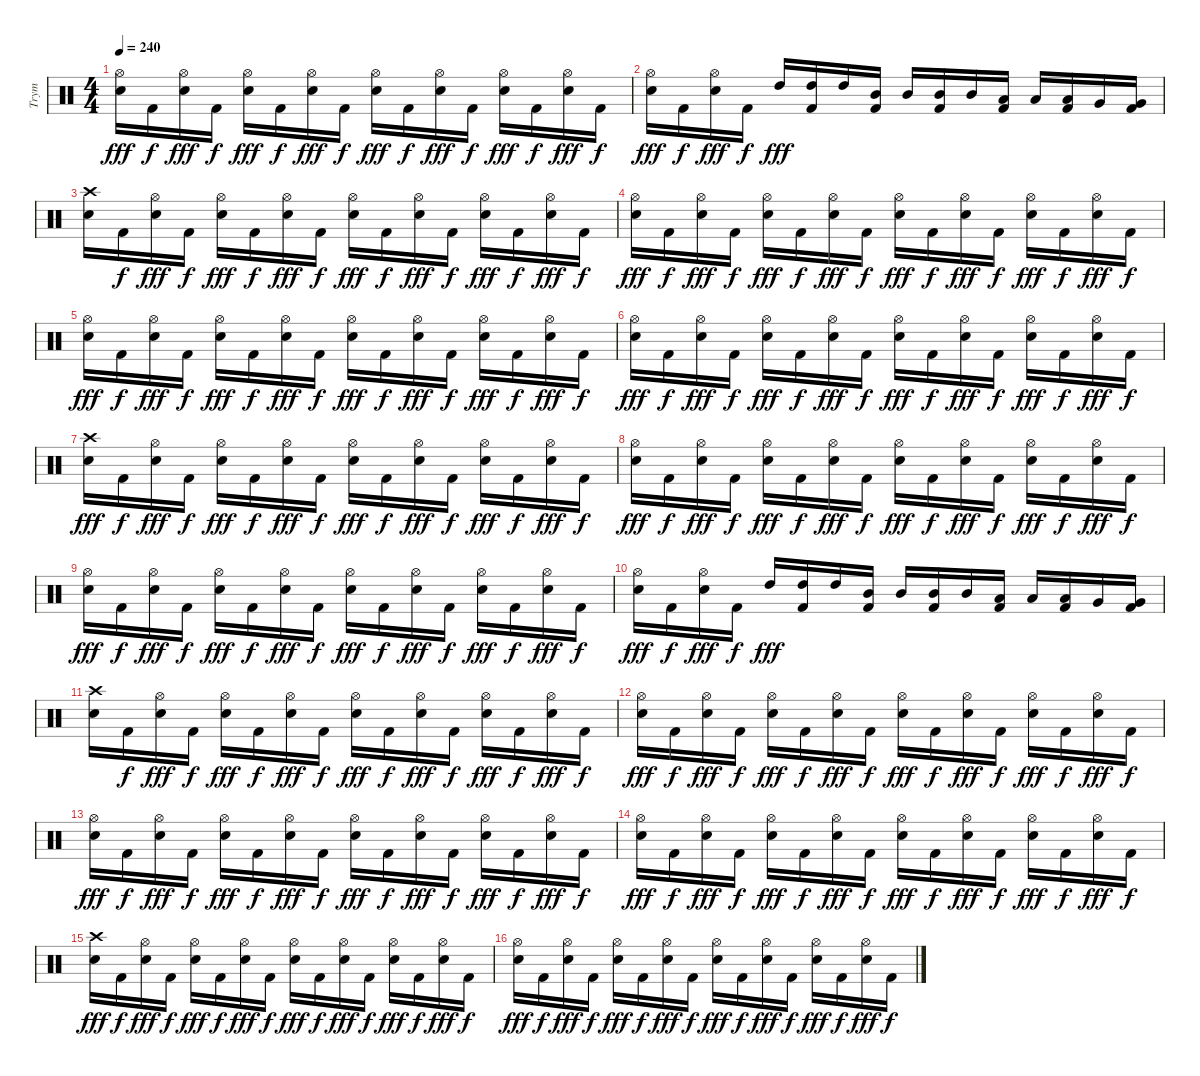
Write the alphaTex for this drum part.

\track ("Trym" "Trym") {instrument percussion}
\staff {score}
\articulation defaults
\ts (4 4)
\tempo 240
\clef neutral
\ks c
("Hi-Hat (open)" "Electric Snare (hit)").16{dy fff} "Kick (hit) 2".16{dy f} ("Hi-Hat (open)" "Electric Snare (hit)").16{dy fff} "Kick (hit) 2".16{dy f} ("Hi-Hat (open)" "Electric Snare (hit)").16{dy fff} "Kick (hit) 2".16{dy f} ("Hi-Hat (open)" "Electric Snare (hit)").16{dy fff} "Kick (hit) 2".16{dy f} ("Hi-Hat (open)" "Electric Snare (hit)").16{dy fff} "Kick (hit) 2".16{dy f} ("Hi-Hat (open)" "Electric Snare (hit)").16{dy fff} "Kick (hit) 2".16{dy f} ("Hi-Hat (open)" "Electric Snare (hit)").16{dy fff} "Kick (hit) 2".16{dy f} ("Hi-Hat (open)" "Electric Snare (hit)").16{dy fff} "Kick (hit) 2".16{dy f} |
("Hi-Hat (open)" "Electric Snare (hit)").16{dy fff} "Kick (hit) 2".16{dy f} ("Hi-Hat (open)" "Electric Snare (hit)").16{dy fff} "Kick (hit) 2".16{dy f} "High Tom (hit)".16{dy fff} ("High Tom (hit)" "Kick (hit) 2").16 "High Tom (hit)".16 ("Mid Tom (hit)" "Kick (hit) 2").16 "Mid Tom (hit)".16 ("Mid Tom (hit)" "Kick (hit) 2").16 "Mid Tom (hit)".16 ("Low Tom (hit)" "Kick (hit) 2").16 "Low Tom (hit)".16 ("Low Tom (hit)" "Kick (hit) 2").16 "Very Low Tom (hit)".16 ("Very Low Tom (hit)" "Kick (hit) 2").16 |
("Crash high (hit)" "Electric Snare (hit)").16 "Kick (hit) 2".16{dy f} ("Hi-Hat (open)" "Electric Snare (hit)").16{dy fff} "Kick (hit) 2".16{dy f} ("Hi-Hat (open)" "Electric Snare (hit)").16{dy fff} "Kick (hit) 2".16{dy f} ("Hi-Hat (open)" "Electric Snare (hit)").16{dy fff} "Kick (hit) 2".16{dy f} ("Hi-Hat (open)" "Electric Snare (hit)").16{dy fff} "Kick (hit) 2".16{dy f} ("Hi-Hat (open)" "Electric Snare (hit)").16{dy fff} "Kick (hit) 2".16{dy f} ("Hi-Hat (open)" "Electric Snare (hit)").16{dy fff} "Kick (hit) 2".16{dy f} ("Hi-Hat (open)" "Electric Snare (hit)").16{dy fff} "Kick (hit) 2".16{dy f} |
("Hi-Hat (open)" "Electric Snare (hit)").16{dy fff} "Kick (hit) 2".16{dy f} ("Hi-Hat (open)" "Electric Snare (hit)").16{dy fff} "Kick (hit) 2".16{dy f} ("Hi-Hat (open)" "Electric Snare (hit)").16{dy fff} "Kick (hit) 2".16{dy f} ("Hi-Hat (open)" "Electric Snare (hit)").16{dy fff} "Kick (hit) 2".16{dy f} ("Hi-Hat (open)" "Electric Snare (hit)").16{dy fff} "Kick (hit) 2".16{dy f} ("Hi-Hat (open)" "Electric Snare (hit)").16{dy fff} "Kick (hit) 2".16{dy f} ("Hi-Hat (open)" "Electric Snare (hit)").16{dy fff} "Kick (hit) 2".16{dy f} ("Hi-Hat (open)" "Electric Snare (hit)").16{dy fff} "Kick (hit) 2".16{dy f} |
("Hi-Hat (open)" "Electric Snare (hit)").16{dy fff} "Kick (hit) 2".16{dy f} ("Hi-Hat (open)" "Electric Snare (hit)").16{dy fff} "Kick (hit) 2".16{dy f} ("Hi-Hat (open)" "Electric Snare (hit)").16{dy fff} "Kick (hit) 2".16{dy f} ("Hi-Hat (open)" "Electric Snare (hit)").16{dy fff} "Kick (hit) 2".16{dy f} ("Hi-Hat (open)" "Electric Snare (hit)").16{dy fff} "Kick (hit) 2".16{dy f} ("Hi-Hat (open)" "Electric Snare (hit)").16{dy fff} "Kick (hit) 2".16{dy f} ("Hi-Hat (open)" "Electric Snare (hit)").16{dy fff} "Kick (hit) 2".16{dy f} ("Hi-Hat (open)" "Electric Snare (hit)").16{dy fff} "Kick (hit) 2".16{dy f} |
("Hi-Hat (open)" "Electric Snare (hit)").16{dy fff} "Kick (hit) 2".16{dy f} ("Hi-Hat (open)" "Electric Snare (hit)").16{dy fff} "Kick (hit) 2".16{dy f} ("Hi-Hat (open)" "Electric Snare (hit)").16{dy fff} "Kick (hit) 2".16{dy f} ("Hi-Hat (open)" "Electric Snare (hit)").16{dy fff} "Kick (hit) 2".16{dy f} ("Hi-Hat (open)" "Electric Snare (hit)").16{dy fff} "Kick (hit) 2".16{dy f} ("Hi-Hat (open)" "Electric Snare (hit)").16{dy fff} "Kick (hit) 2".16{dy f} ("Hi-Hat (open)" "Electric Snare (hit)").16{dy fff} "Kick (hit) 2".16{dy f} ("Hi-Hat (open)" "Electric Snare (hit)").16{dy fff} "Kick (hit) 2".16{dy f} |
("Crash high (hit)" "Electric Snare (hit)").16{dy fff} "Kick (hit) 2".16{dy f} ("Hi-Hat (open)" "Electric Snare (hit)").16{dy fff} "Kick (hit) 2".16{dy f} ("Hi-Hat (open)" "Electric Snare (hit)").16{dy fff} "Kick (hit) 2".16{dy f} ("Hi-Hat (open)" "Electric Snare (hit)").16{dy fff} "Kick (hit) 2".16{dy f} ("Hi-Hat (open)" "Electric Snare (hit)").16{dy fff} "Kick (hit) 2".16{dy f} ("Hi-Hat (open)" "Electric Snare (hit)").16{dy fff} "Kick (hit) 2".16{dy f} ("Hi-Hat (open)" "Electric Snare (hit)").16{dy fff} "Kick (hit) 2".16{dy f} ("Hi-Hat (open)" "Electric Snare (hit)").16{dy fff} "Kick (hit) 2".16{dy f} |
("Hi-Hat (open)" "Electric Snare (hit)").16{dy fff} "Kick (hit) 2".16{dy f} ("Hi-Hat (open)" "Electric Snare (hit)").16{dy fff} "Kick (hit) 2".16{dy f} ("Hi-Hat (open)" "Electric Snare (hit)").16{dy fff} "Kick (hit) 2".16{dy f} ("Hi-Hat (open)" "Electric Snare (hit)").16{dy fff} "Kick (hit) 2".16{dy f} ("Hi-Hat (open)" "Electric Snare (hit)").16{dy fff} "Kick (hit) 2".16{dy f} ("Hi-Hat (open)" "Electric Snare (hit)").16{dy fff} "Kick (hit) 2".16{dy f} ("Hi-Hat (open)" "Electric Snare (hit)").16{dy fff} "Kick (hit) 2".16{dy f} ("Hi-Hat (open)" "Electric Snare (hit)").16{dy fff} "Kick (hit) 2".16{dy f} |
("Hi-Hat (open)" "Electric Snare (hit)").16{dy fff} "Kick (hit) 2".16{dy f} ("Hi-Hat (open)" "Electric Snare (hit)").16{dy fff} "Kick (hit) 2".16{dy f} ("Hi-Hat (open)" "Electric Snare (hit)").16{dy fff} "Kick (hit) 2".16{dy f} ("Hi-Hat (open)" "Electric Snare (hit)").16{dy fff} "Kick (hit) 2".16{dy f} ("Hi-Hat (open)" "Electric Snare (hit)").16{dy fff} "Kick (hit) 2".16{dy f} ("Hi-Hat (open)" "Electric Snare (hit)").16{dy fff} "Kick (hit) 2".16{dy f} ("Hi-Hat (open)" "Electric Snare (hit)").16{dy fff} "Kick (hit) 2".16{dy f} ("Hi-Hat (open)" "Electric Snare (hit)").16{dy fff} "Kick (hit) 2".16{dy f} |
("Hi-Hat (open)" "Electric Snare (hit)").16{dy fff} "Kick (hit) 2".16{dy f} ("Hi-Hat (open)" "Electric Snare (hit)").16{dy fff} "Kick (hit) 2".16{dy f} "High Tom (hit)".16{dy fff} ("High Tom (hit)" "Kick (hit) 2").16 "High Tom (hit)".16 ("Mid Tom (hit)" "Kick (hit) 2").16 "Mid Tom (hit)".16 ("Mid Tom (hit)" "Kick (hit) 2").16 "Mid Tom (hit)".16 ("Low Tom (hit)" "Kick (hit) 2").16 "Low Tom (hit)".16 ("Low Tom (hit)" "Kick (hit) 2").16 "Very Low Tom (hit)".16 ("Very Low Tom (hit)" "Kick (hit) 2").16 |
("Crash high (hit)" "Electric Snare (hit)").16 "Kick (hit) 2".16{dy f} ("Hi-Hat (open)" "Electric Snare (hit)").16{dy fff} "Kick (hit) 2".16{dy f} ("Hi-Hat (open)" "Electric Snare (hit)").16{dy fff} "Kick (hit) 2".16{dy f} ("Hi-Hat (open)" "Electric Snare (hit)").16{dy fff} "Kick (hit) 2".16{dy f} ("Hi-Hat (open)" "Electric Snare (hit)").16{dy fff} "Kick (hit) 2".16{dy f} ("Hi-Hat (open)" "Electric Snare (hit)").16{dy fff} "Kick (hit) 2".16{dy f} ("Hi-Hat (open)" "Electric Snare (hit)").16{dy fff} "Kick (hit) 2".16{dy f} ("Hi-Hat (open)" "Electric Snare (hit)").16{dy fff} "Kick (hit) 2".16{dy f} |
("Hi-Hat (open)" "Electric Snare (hit)").16{dy fff} "Kick (hit) 2".16{dy f} ("Hi-Hat (open)" "Electric Snare (hit)").16{dy fff} "Kick (hit) 2".16{dy f} ("Hi-Hat (open)" "Electric Snare (hit)").16{dy fff} "Kick (hit) 2".16{dy f} ("Hi-Hat (open)" "Electric Snare (hit)").16{dy fff} "Kick (hit) 2".16{dy f} ("Hi-Hat (open)" "Electric Snare (hit)").16{dy fff} "Kick (hit) 2".16{dy f} ("Hi-Hat (open)" "Electric Snare (hit)").16{dy fff} "Kick (hit) 2".16{dy f} ("Hi-Hat (open)" "Electric Snare (hit)").16{dy fff} "Kick (hit) 2".16{dy f} ("Hi-Hat (open)" "Electric Snare (hit)").16{dy fff} "Kick (hit) 2".16{dy f} |
("Hi-Hat (open)" "Electric Snare (hit)").16{dy fff} "Kick (hit) 2".16{dy f} ("Hi-Hat (open)" "Electric Snare (hit)").16{dy fff} "Kick (hit) 2".16{dy f} ("Hi-Hat (open)" "Electric Snare (hit)").16{dy fff} "Kick (hit) 2".16{dy f} ("Hi-Hat (open)" "Electric Snare (hit)").16{dy fff} "Kick (hit) 2".16{dy f} ("Hi-Hat (open)" "Electric Snare (hit)").16{dy fff} "Kick (hit) 2".16{dy f} ("Hi-Hat (open)" "Electric Snare (hit)").16{dy fff} "Kick (hit) 2".16{dy f} ("Hi-Hat (open)" "Electric Snare (hit)").16{dy fff} "Kick (hit) 2".16{dy f} ("Hi-Hat (open)" "Electric Snare (hit)").16{dy fff} "Kick (hit) 2".16{dy f} |
("Hi-Hat (open)" "Electric Snare (hit)").16{dy fff} "Kick (hit) 2".16{dy f} ("Hi-Hat (open)" "Electric Snare (hit)").16{dy fff} "Kick (hit) 2".16{dy f} ("Hi-Hat (open)" "Electric Snare (hit)").16{dy fff} "Kick (hit) 2".16{dy f} ("Hi-Hat (open)" "Electric Snare (hit)").16{dy fff} "Kick (hit) 2".16{dy f} ("Hi-Hat (open)" "Electric Snare (hit)").16{dy fff} "Kick (hit) 2".16{dy f} ("Hi-Hat (open)" "Electric Snare (hit)").16{dy fff} "Kick (hit) 2".16{dy f} ("Hi-Hat (open)" "Electric Snare (hit)").16{dy fff} "Kick (hit) 2".16{dy f} ("Hi-Hat (open)" "Electric Snare (hit)").16{dy fff} "Kick (hit) 2".16{dy f} |
("Crash high (hit)" "Electric Snare (hit)").16{dy fff} "Kick (hit) 2".16{dy f} ("Hi-Hat (open)" "Electric Snare (hit)").16{dy fff} "Kick (hit) 2".16{dy f} ("Hi-Hat (open)" "Electric Snare (hit)").16{dy fff} "Kick (hit) 2".16{dy f} ("Hi-Hat (open)" "Electric Snare (hit)").16{dy fff} "Kick (hit) 2".16{dy f} ("Hi-Hat (open)" "Electric Snare (hit)").16{dy fff} "Kick (hit) 2".16{dy f} ("Hi-Hat (open)" "Electric Snare (hit)").16{dy fff} "Kick (hit) 2".16{dy f} ("Hi-Hat (open)" "Electric Snare (hit)").16{dy fff} "Kick (hit) 2".16{dy f} ("Hi-Hat (open)" "Electric Snare (hit)").16{dy fff} "Kick (hit) 2".16{dy f} |
("Hi-Hat (open)" "Electric Snare (hit)").16{dy fff} "Kick (hit) 2".16{dy f} ("Hi-Hat (open)" "Electric Snare (hit)").16{dy fff} "Kick (hit) 2".16{dy f} ("Hi-Hat (open)" "Electric Snare (hit)").16{dy fff} "Kick (hit) 2".16{dy f} ("Hi-Hat (open)" "Electric Snare (hit)").16{dy fff} "Kick (hit) 2".16{dy f} ("Hi-Hat (open)" "Electric Snare (hit)").16{dy fff} "Kick (hit) 2".16{dy f} ("Hi-Hat (open)" "Electric Snare (hit)").16{dy fff} "Kick (hit) 2".16{dy f} ("Hi-Hat (open)" "Electric Snare (hit)").16{dy fff} "Kick (hit) 2".16{dy f} ("Hi-Hat (open)" "Electric Snare (hit)").16{dy fff} "Kick (hit) 2".16{dy f}
